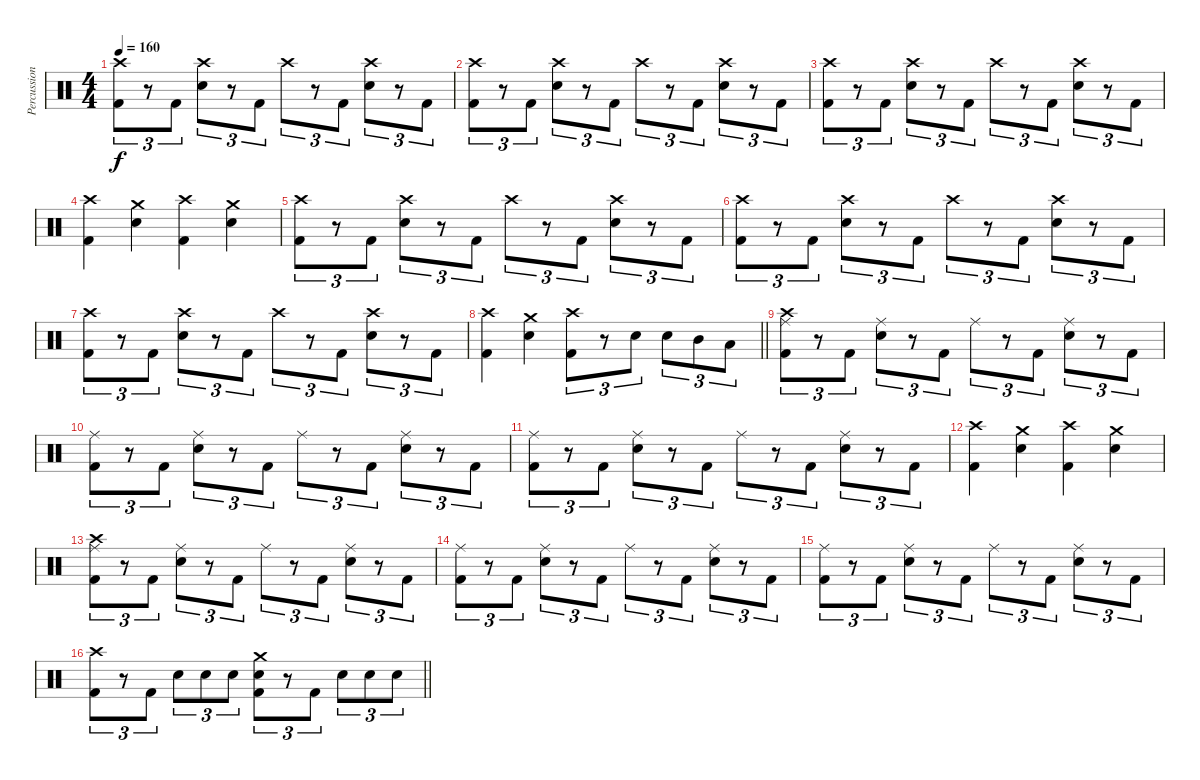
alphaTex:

\track ("Percussion" "Percussion") {instrument percussion}
\staff {score}
\articulation defaults
\ts (4 4)
\tempo 160
\clef neutral
\ks c
("Crash high (hit)" "Kick (hit) 2").8{tu (3 2) dy f} r.8{tu (3 2)} "Kick (hit) 2".8{tu (3 2)} ("Crash high (hit)" "Electric Snare (hit)").8{tu (3 2)} r.8{tu (3 2)} "Kick (hit) 2".8{tu (3 2)} "Crash high (hit)".8{tu (3 2)} r.8{tu (3 2)} "Kick (hit) 2".8{tu (3 2)} ("Crash high (hit)" "Electric Snare (hit)").8{tu (3 2)} r.8{tu (3 2)} "Kick (hit) 2".8{tu (3 2)} |
("Crash high (hit)" "Kick (hit) 2").8{tu (3 2)} r.8{tu (3 2)} "Kick (hit) 2".8{tu (3 2)} ("Crash high (hit)" "Electric Snare (hit)").8{tu (3 2)} r.8{tu (3 2)} "Kick (hit) 2".8{tu (3 2)} "Crash high (hit)".8{tu (3 2)} r.8{tu (3 2)} "Kick (hit) 2".8{tu (3 2)} ("Crash high (hit)" "Electric Snare (hit)").8{tu (3 2)} r.8{tu (3 2)} "Kick (hit) 2".8{tu (3 2)} |
("Crash high (hit)" "Kick (hit) 2").8{tu (3 2)} r.8{tu (3 2)} "Kick (hit) 2".8{tu (3 2)} ("Crash high (hit)" "Electric Snare (hit)").8{tu (3 2)} r.8{tu (3 2)} "Kick (hit) 2".8{tu (3 2)} "Crash high (hit)".8{tu (3 2)} r.8{tu (3 2)} "Kick (hit) 2".8{tu (3 2)} ("Crash high (hit)" "Electric Snare (hit)").8{tu (3 2)} r.8{tu (3 2)} "Kick (hit) 2".8{tu (3 2)} |
("Crash high (hit)" "Kick (hit) 2").4 ("Crash medium (hit)" "Electric Snare (hit)").4 ("Crash high (hit)" "Kick (hit) 2").4 ("Crash medium (hit)" "Electric Snare (hit)").4 |
("Crash high (hit)" "Kick (hit) 2").8{tu (3 2)} r.8{tu (3 2)} "Kick (hit) 2".8{tu (3 2)} ("Crash high (hit)" "Electric Snare (hit)").8{tu (3 2)} r.8{tu (3 2)} "Kick (hit) 2".8{tu (3 2)} "Crash high (hit)".8{tu (3 2)} r.8{tu (3 2)} "Kick (hit) 2".8{tu (3 2)} ("Crash high (hit)" "Electric Snare (hit)").8{tu (3 2)} r.8{tu (3 2)} "Kick (hit) 2".8{tu (3 2)} |
("Crash high (hit)" "Kick (hit) 2").8{tu (3 2)} r.8{tu (3 2)} "Kick (hit) 2".8{tu (3 2)} ("Crash high (hit)" "Electric Snare (hit)").8{tu (3 2)} r.8{tu (3 2)} "Kick (hit) 2".8{tu (3 2)} "Crash high (hit)".8{tu (3 2)} r.8{tu (3 2)} "Kick (hit) 2".8{tu (3 2)} ("Crash high (hit)" "Electric Snare (hit)").8{tu (3 2)} r.8{tu (3 2)} "Kick (hit) 2".8{tu (3 2)} |
("Crash high (hit)" "Kick (hit) 2").8{tu (3 2)} r.8{tu (3 2)} "Kick (hit) 2".8{tu (3 2)} ("Crash high (hit)" "Electric Snare (hit)").8{tu (3 2)} r.8{tu (3 2)} "Kick (hit) 2".8{tu (3 2)} "Crash high (hit)".8{tu (3 2)} r.8{tu (3 2)} "Kick (hit) 2".8{tu (3 2)} ("Crash high (hit)" "Electric Snare (hit)").8{tu (3 2)} r.8{tu (3 2)} "Kick (hit) 2".8{tu (3 2)} |
\barLineRight lightlight
("Crash high (hit)" "Kick (hit) 2").4 ("Crash medium (hit)" "Electric Snare (hit)").4 ("Crash high (hit)" "Kick (hit) 2").8{tu (3 2)} r.8{tu (3 2)} "Electric Snare (hit)".8{tu (3 2)} "Electric Snare (hit)".8{tu (3 2)} "Mid Tom (hit)".8{tu (3 2)} "Low Tom (hit)".8{tu (3 2)} |
("Crash high (hit)" "Ride (middle)" "Kick (hit) 2").8{tu (3 2)} r.8{tu (3 2)} "Kick (hit) 2".8{tu (3 2)} ("Ride (middle)" "Electric Snare (hit)").8{tu (3 2)} r.8{tu (3 2)} "Kick (hit) 2".8{tu (3 2)} "Ride (middle)".8{tu (3 2)} r.8{tu (3 2)} "Kick (hit) 2".8{tu (3 2)} ("Ride (middle)" "Electric Snare (hit)").8{tu (3 2)} r.8{tu (3 2)} "Kick (hit) 2".8{tu (3 2)} |
("Ride (middle)" "Kick (hit) 2").8{tu (3 2)} r.8{tu (3 2)} "Kick (hit) 2".8{tu (3 2)} ("Ride (middle)" "Electric Snare (hit)").8{tu (3 2)} r.8{tu (3 2)} "Kick (hit) 2".8{tu (3 2)} "Ride (middle)".8{tu (3 2)} r.8{tu (3 2)} "Kick (hit) 2".8{tu (3 2)} ("Ride (middle)" "Electric Snare (hit)").8{tu (3 2)} r.8{tu (3 2)} "Kick (hit) 2".8{tu (3 2)} |
("Ride (middle)" "Kick (hit) 2").8{tu (3 2)} r.8{tu (3 2)} "Kick (hit) 2".8{tu (3 2)} ("Ride (middle)" "Electric Snare (hit)").8{tu (3 2)} r.8{tu (3 2)} "Kick (hit) 2".8{tu (3 2)} "Ride (middle)".8{tu (3 2)} r.8{tu (3 2)} "Kick (hit) 2".8{tu (3 2)} ("Ride (middle)" "Electric Snare (hit)").8{tu (3 2)} r.8{tu (3 2)} "Kick (hit) 2".8{tu (3 2)} |
("Crash high (hit)" "Kick (hit) 2").4 ("Crash medium (hit)" "Electric Snare (hit)").4 ("Crash high (hit)" "Kick (hit) 2").4 ("Crash medium (hit)" "Electric Snare (hit)").4 |
("Crash high (hit)" "Ride (middle)" "Kick (hit) 2").8{tu (3 2)} r.8{tu (3 2)} "Kick (hit) 2".8{tu (3 2)} ("Ride (middle)" "Electric Snare (hit)").8{tu (3 2)} r.8{tu (3 2)} "Kick (hit) 2".8{tu (3 2)} "Ride (middle)".8{tu (3 2)} r.8{tu (3 2)} "Kick (hit) 2".8{tu (3 2)} ("Ride (middle)" "Electric Snare (hit)").8{tu (3 2)} r.8{tu (3 2)} "Kick (hit) 2".8{tu (3 2)} |
("Ride (middle)" "Kick (hit) 2").8{tu (3 2)} r.8{tu (3 2)} "Kick (hit) 2".8{tu (3 2)} ("Ride (middle)" "Electric Snare (hit)").8{tu (3 2)} r.8{tu (3 2)} "Kick (hit) 2".8{tu (3 2)} "Ride (middle)".8{tu (3 2)} r.8{tu (3 2)} "Kick (hit) 2".8{tu (3 2)} ("Ride (middle)" "Electric Snare (hit)").8{tu (3 2)} r.8{tu (3 2)} "Kick (hit) 2".8{tu (3 2)} |
("Ride (middle)" "Kick (hit) 2").8{tu (3 2)} r.8{tu (3 2)} "Kick (hit) 2".8{tu (3 2)} ("Ride (middle)" "Electric Snare (hit)").8{tu (3 2)} r.8{tu (3 2)} "Kick (hit) 2".8{tu (3 2)} "Ride (middle)".8{tu (3 2)} r.8{tu (3 2)} "Kick (hit) 2".8{tu (3 2)} ("Ride (middle)" "Electric Snare (hit)").8{tu (3 2)} r.8{tu (3 2)} "Kick (hit) 2".8{tu (3 2)} |
\barLineRight lightlight
("Crash high (hit)" "Kick (hit) 2").8{tu (3 2)} r.8{tu (3 2)} "Kick (hit) 2".8{tu (3 2)} "Electric Snare (hit)".8{tu (3 2)} "Electric Snare (hit)".8{tu (3 2)} "Electric Snare (hit)".8{tu (3 2)} ("Crash medium (hit)" "Electric Snare (hit)" "Kick (hit) 2").8{tu (3 2)} r.8{tu (3 2)} "Kick (hit) 2".8{tu (3 2)} "Electric Snare (hit)".8{tu (3 2)} "Electric Snare (hit)".8{tu (3 2)} "Electric Snare (hit)".8{tu (3 2)}
